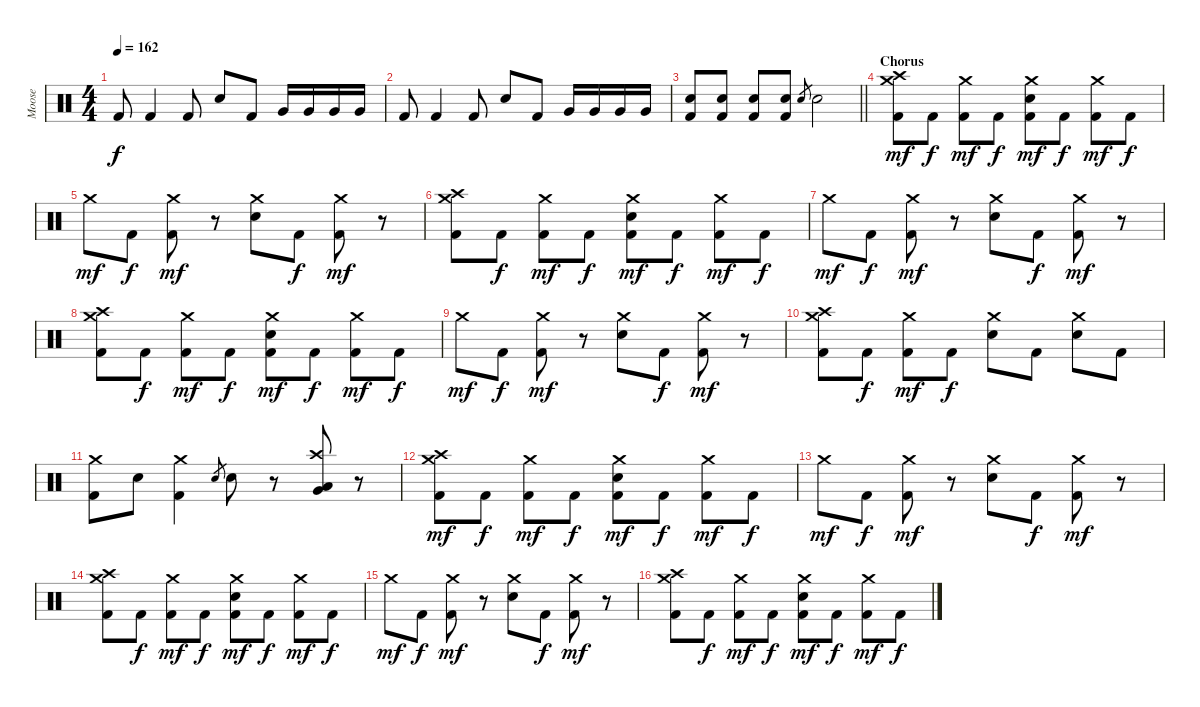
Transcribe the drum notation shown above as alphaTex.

\track ("Moose" "Moose") {instrument percussion}
\staff {score}
\articulation defaults
\ts (4 4)
\tempo 162
\clef neutral
\ks c "Kick (hit) 2".8{dy f} "Kick (hit) 2".4 "Kick (hit) 2".8 "Snare (hit) 2".8 "Kick (hit) 2".8 "Very Low Tom (hit)".16 "Very Low Tom (hit)".16 "Very Low Tom (hit)".16 "Very Low Tom (hit)".16
|
"Kick (hit) 2".8 "Kick (hit) 2".4 "Kick (hit) 2".8 "Snare (hit) 2".8 "Kick (hit) 2".8 "Very Low Tom (hit)".16 "Very Low Tom (hit)".16 "Very Low Tom (hit)".16 "Very Low Tom (hit)".16 |
\barLineRight lightlight
("Snare (hit) 2" "Kick (hit) 2").8 ("Snare (hit) 2" "Kick (hit) 2").8 ("Snare (hit) 2" "Kick (hit) 2").8 ("Snare (hit) 2" "Kick (hit) 2").8 "Snare (hit) 2".8{gr} "Snare (hit) 2".2 |
\section ("" "Chorus")
("Kick (hit) 2" "Crash high (hit)" "Crash medium (hit)").8{dy mf} "Kick (hit) 2".8{dy f} ("Kick (hit) 2" "Crash medium (hit)").8{dy mf} "Kick (hit) 2".8{dy f} ("Kick (hit) 2" "Snare (hit) 2" "Crash medium (hit)").8{dy mf} "Kick (hit) 2".8{dy f} ("Kick (hit) 2" "Crash medium (hit)").8{dy mf} "Kick (hit) 2".8{dy f} |
"Crash medium (hit)".8{dy mf} "Kick (hit) 2".8{dy f} ("Kick (hit) 2" "Crash medium (hit)").8{dy mf} r.8 ("Snare (hit) 2" "Crash medium (hit)").8 "Kick (hit) 2".8{dy f} ("Kick (hit) 2" "Crash medium (hit)").8{dy mf} r.8 |
("Kick (hit) 2" "Crash high (hit)" "Crash medium (hit)").8 "Kick (hit) 2".8{dy f} ("Kick (hit) 2" "Crash medium (hit)").8{dy mf} "Kick (hit) 2".8{dy f} ("Kick (hit) 2" "Snare (hit) 2" "Crash medium (hit)").8{dy mf} "Kick (hit) 2".8{dy f} ("Kick (hit) 2" "Crash medium (hit)").8{dy mf} "Kick (hit) 2".8{dy f} |
"Crash medium (hit)".8{dy mf} "Kick (hit) 2".8{dy f} ("Kick (hit) 2" "Crash medium (hit)").8{dy mf} r.8 ("Snare (hit) 2" "Crash medium (hit)").8 "Kick (hit) 2".8{dy f} ("Kick (hit) 2" "Crash medium (hit)").8{dy mf} r.8 |
("Kick (hit) 2" "Crash high (hit)" "Crash medium (hit)").8 "Kick (hit) 2".8{dy f} ("Kick (hit) 2" "Crash medium (hit)").8{dy mf} "Kick (hit) 2".8{dy f} ("Kick (hit) 2" "Snare (hit) 2" "Crash medium (hit)").8{dy mf} "Kick (hit) 2".8{dy f} ("Kick (hit) 2" "Crash medium (hit)").8{dy mf} "Kick (hit) 2".8{dy f} |
"Crash medium (hit)".8{dy mf} "Kick (hit) 2".8{dy f} ("Kick (hit) 2" "Crash medium (hit)").8{dy mf} r.8 ("Snare (hit) 2" "Crash medium (hit)").8 "Kick (hit) 2".8{dy f} ("Kick (hit) 2" "Crash medium (hit)").8{dy mf} r.8 |
("Kick (hit) 2" "Crash high (hit)" "Crash medium (hit)").8 "Kick (hit) 2".8{dy f} ("Kick (hit) 2" "Crash medium (hit)").8{dy mf} "Kick (hit) 2".8{dy f} ("Crash medium (hit)" "Snare (hit) 2").8 "Kick (hit) 2".8 ("Crash medium (hit)" "Snare (hit) 2").8 "Kick (hit) 2".8 |
("Crash medium (hit)" "Kick (hit) 2").8 "Snare (hit) 2".8 ("Crash medium (hit)" "Kick (hit) 2").4 "Snare (hit) 2".8{gr} "Snare (hit) 2".8 r.8 ("Crash high (hit)" "Very Low Tom (hit)" "Low Floor Tom (hit)").8 r.8 |
("Kick (hit) 2" "Crash high (hit)" "Crash medium (hit)").8{dy mf} "Kick (hit) 2".8{dy f} ("Kick (hit) 2" "Crash medium (hit)").8{dy mf} "Kick (hit) 2".8{dy f} ("Kick (hit) 2" "Snare (hit) 2" "Crash medium (hit)").8{dy mf} "Kick (hit) 2".8{dy f} ("Kick (hit) 2" "Crash medium (hit)").8{dy mf} "Kick (hit) 2".8{dy f} |
"Crash medium (hit)".8{dy mf} "Kick (hit) 2".8{dy f} ("Kick (hit) 2" "Crash medium (hit)").8{dy mf} r.8 ("Snare (hit) 2" "Crash medium (hit)").8 "Kick (hit) 2".8{dy f} ("Kick (hit) 2" "Crash medium (hit)").8{dy mf} r.8 |
("Kick (hit) 2" "Crash high (hit)" "Crash medium (hit)").8 "Kick (hit) 2".8{dy f} ("Kick (hit) 2" "Crash medium (hit)").8{dy mf} "Kick (hit) 2".8{dy f} ("Kick (hit) 2" "Snare (hit) 2" "Crash medium (hit)").8{dy mf} "Kick (hit) 2".8{dy f} ("Kick (hit) 2" "Crash medium (hit)").8{dy mf} "Kick (hit) 2".8{dy f} |
"Crash medium (hit)".8{dy mf} "Kick (hit) 2".8{dy f} ("Kick (hit) 2" "Crash medium (hit)").8{dy mf} r.8 ("Snare (hit) 2" "Crash medium (hit)").8 "Kick (hit) 2".8{dy f} ("Kick (hit) 2" "Crash medium (hit)").8{dy mf} r.8 |
("Kick (hit) 2" "Crash high (hit)" "Crash medium (hit)").8 "Kick (hit) 2".8{dy f} ("Kick (hit) 2" "Crash medium (hit)").8{dy mf} "Kick (hit) 2".8{dy f} ("Kick (hit) 2" "Snare (hit) 2" "Crash medium (hit)").8{dy mf} "Kick (hit) 2".8{dy f} ("Kick (hit) 2" "Crash medium (hit)").8{dy mf} "Kick (hit) 2".8{dy f}
